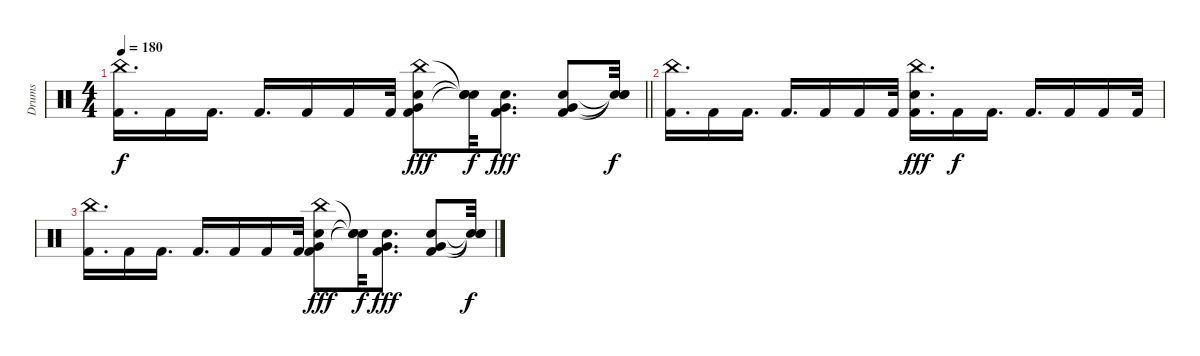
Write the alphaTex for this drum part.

\track ("Drums" "Drums") {instrument percussion}
\staff {score}
\articulation defaults
\ts (4 4)
\tempo 180
\clef neutral
\barLineRight lightlight
\ks c
("China (hit)" "Kick (hit) 2").16{d dy f} "Kick (hit) 2".16 "Kick (hit) 2".16{d} "Kick (hit) 2".16{d} "Kick (hit) 2".16 "Kick (hit) 2".16 "Kick (hit) 2".32 ("China (hit)" "Snare (hit) 2" "Very Low Tom (hit)" "Kick (hit) 2").8{dy fff} ("Snare (hit)"{t} "Snare (hit)"{t} "Snare (hit)"{t}).32{dy f} ("Snare (hit) 2" "Very Low Tom (hit)" "Kick (hit) 2").8{d dy fff} ("Snare (hit) 2" "Very Low Tom (hit)" "Kick (hit) 2").8 ("Snare (hit)"{t} "Snare (hit)"{t} "Snare (hit)"{t}).32{dy f} |
("Kick (hit) 2" "China (hit)").16{d} "Kick (hit) 2".16 "Kick (hit) 2".16{d} "Kick (hit) 2".16{d} "Kick (hit) 2".16 "Kick (hit) 2".16 "Kick (hit) 2".32 ("China (hit)" "Snare (hit) 2" "Kick (hit) 2").16{d dy fff} "Kick (hit) 2".16{dy f} "Kick (hit) 2".16{d} "Kick (hit) 2".16{d} "Kick (hit) 2".16 "Kick (hit) 2".16 "Kick (hit) 2".32 |
("China (hit)" "Kick (hit) 2").16{d} "Kick (hit) 2".16 "Kick (hit) 2".16{d} "Kick (hit) 2".16{d} "Kick (hit) 2".16 "Kick (hit) 2".16 "Kick (hit) 2".32 ("China (hit)" "Snare (hit) 2" "Very Low Tom (hit)" "Kick (hit) 2").8{dy fff} ("Snare (hit)"{t} "Snare (hit)"{t} "Snare (hit)"{t}).32{dy f} ("Snare (hit) 2" "Very Low Tom (hit)" "Kick (hit) 2").8{d dy fff} ("Snare (hit) 2" "Very Low Tom (hit)" "Kick (hit) 2").8 ("Snare (hit)"{t} "Snare (hit)"{t} "Snare (hit)"{t}).32{dy f}
